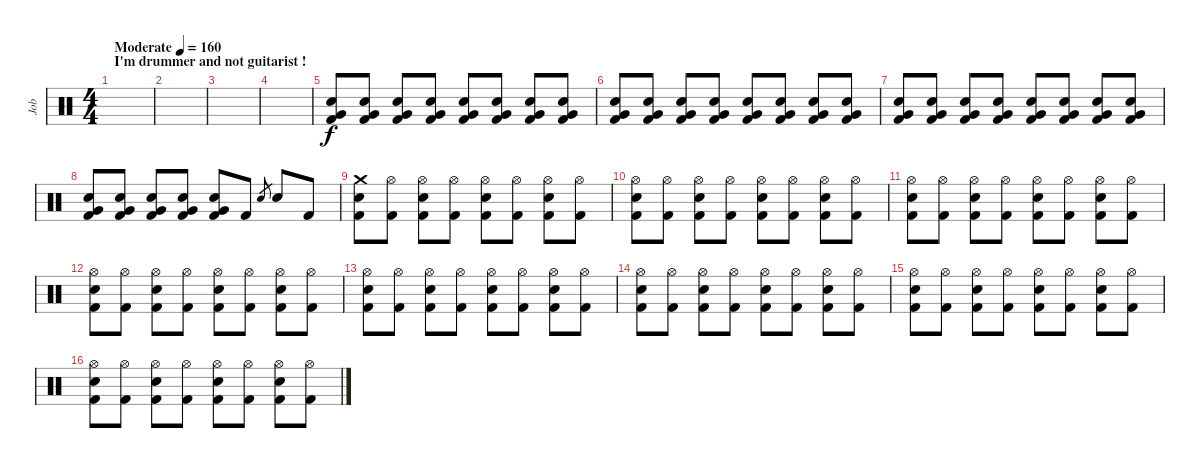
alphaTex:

\track ("Job" "Job") {instrument percussion}
\staff {score}
\articulation defaults
\ts (4 4)
\section ("" "I'm drummer and not guitarist !")
\tempo (160 "Moderate")
\clef neutral
\ks c
|
|
|
|
("Electric Snare (hit)" "Very Low Tom (hit)" "Kick (hit) 2").8{volume 12} ("Electric Snare (hit)" "Very Low Tom (hit)" "Kick (hit) 2").8 ("Electric Snare (hit)" "Very Low Tom (hit)" "Kick (hit) 2").8 ("Electric Snare (hit)" "Very Low Tom (hit)" "Kick (hit) 2").8 ("Electric Snare (hit)" "Very Low Tom (hit)" "Kick (hit) 2").8 ("Electric Snare (hit)" "Very Low Tom (hit)" "Kick (hit) 2").8 ("Electric Snare (hit)" "Very Low Tom (hit)" "Kick (hit) 2").8 ("Electric Snare (hit)" "Very Low Tom (hit)" "Kick (hit) 2").8 |
("Electric Snare (hit)" "Very Low Tom (hit)" "Kick (hit) 2").8 ("Electric Snare (hit)" "Very Low Tom (hit)" "Kick (hit) 2").8 ("Electric Snare (hit)" "Very Low Tom (hit)" "Kick (hit) 2").8 ("Electric Snare (hit)" "Very Low Tom (hit)" "Kick (hit) 2").8 ("Electric Snare (hit)" "Very Low Tom (hit)" "Kick (hit) 2").8 ("Electric Snare (hit)" "Very Low Tom (hit)" "Kick (hit) 2").8 ("Electric Snare (hit)" "Very Low Tom (hit)" "Kick (hit) 2").8 ("Electric Snare (hit)" "Very Low Tom (hit)" "Kick (hit) 2").8 |
("Electric Snare (hit)" "Very Low Tom (hit)" "Kick (hit) 2").8 ("Electric Snare (hit)" "Very Low Tom (hit)" "Kick (hit) 2").8 ("Electric Snare (hit)" "Very Low Tom (hit)" "Kick (hit) 2").8 ("Electric Snare (hit)" "Very Low Tom (hit)" "Kick (hit) 2").8 ("Electric Snare (hit)" "Very Low Tom (hit)" "Kick (hit) 2").8 ("Electric Snare (hit)" "Very Low Tom (hit)" "Kick (hit) 2").8 ("Electric Snare (hit)" "Very Low Tom (hit)" "Kick (hit) 2").8 ("Electric Snare (hit)" "Very Low Tom (hit)" "Kick (hit) 2").8 |
("Electric Snare (hit)" "Very Low Tom (hit)" "Kick (hit) 2").8 ("Electric Snare (hit)" "Very Low Tom (hit)" "Kick (hit) 2").8 ("Electric Snare (hit)" "Very Low Tom (hit)" "Kick (hit) 2").8 ("Electric Snare (hit)" "Very Low Tom (hit)" "Kick (hit) 2").8 ("Electric Snare (hit)" "Very Low Tom (hit)" "Kick (hit) 2").8 "Kick (hit) 2".8 "Electric Snare (hit)".8{gr} "Electric Snare (hit)".8 "Kick (hit) 2".8 |
("Crash medium (hit)" "Electric Snare (hit)" "Kick (hit) 2").8 ("Hi-Hat (open)" "Kick (hit) 2").8 ("Hi-Hat (open)" "Electric Snare (hit)" "Kick (hit) 2").8 ("Hi-Hat (open)" "Kick (hit) 2").8 ("Hi-Hat (open)" "Electric Snare (hit)" "Kick (hit) 2").8 ("Hi-Hat (open)" "Kick (hit) 2").8 ("Hi-Hat (open)" "Electric Snare (hit)" "Kick (hit) 2").8 ("Hi-Hat (open)" "Kick (hit) 2").8 |
("Hi-Hat (open)" "Electric Snare (hit)" "Kick (hit) 2").8 ("Hi-Hat (open)" "Kick (hit) 2").8 ("Hi-Hat (open)" "Electric Snare (hit)" "Kick (hit) 2").8 ("Hi-Hat (open)" "Kick (hit) 2").8 ("Hi-Hat (open)" "Electric Snare (hit)" "Kick (hit) 2").8 ("Hi-Hat (open)" "Kick (hit) 2").8 ("Hi-Hat (open)" "Electric Snare (hit)" "Kick (hit) 2").8 ("Hi-Hat (open)" "Kick (hit) 2").8 |
("Hi-Hat (open)" "Electric Snare (hit)" "Kick (hit) 2").8 ("Hi-Hat (open)" "Kick (hit) 2").8 ("Hi-Hat (open)" "Electric Snare (hit)" "Kick (hit) 2").8 ("Hi-Hat (open)" "Kick (hit) 2").8 ("Hi-Hat (open)" "Electric Snare (hit)" "Kick (hit) 2").8 ("Hi-Hat (open)" "Kick (hit) 2").8 ("Hi-Hat (open)" "Electric Snare (hit)" "Kick (hit) 2").8 ("Hi-Hat (open)" "Kick (hit) 2").8 |
("Hi-Hat (open)" "Electric Snare (hit)" "Kick (hit) 2").8 ("Hi-Hat (open)" "Kick (hit) 2").8 ("Hi-Hat (open)" "Electric Snare (hit)" "Kick (hit) 2").8 ("Hi-Hat (open)" "Kick (hit) 2").8 ("Hi-Hat (open)" "Electric Snare (hit)" "Kick (hit) 2").8 ("Hi-Hat (open)" "Kick (hit) 2").8 ("Hi-Hat (open)" "Electric Snare (hit)" "Kick (hit) 2").8 ("Hi-Hat (open)" "Kick (hit) 2").8 |
("Hi-Hat (open)" "Electric Snare (hit)" "Kick (hit) 2").8 ("Hi-Hat (open)" "Kick (hit) 2").8 ("Hi-Hat (open)" "Electric Snare (hit)" "Kick (hit) 2").8 ("Hi-Hat (open)" "Kick (hit) 2").8 ("Hi-Hat (open)" "Electric Snare (hit)" "Kick (hit) 2").8 ("Hi-Hat (open)" "Kick (hit) 2").8 ("Hi-Hat (open)" "Electric Snare (hit)" "Kick (hit) 2").8 ("Hi-Hat (open)" "Kick (hit) 2").8 |
("Hi-Hat (open)" "Electric Snare (hit)" "Kick (hit) 2").8 ("Hi-Hat (open)" "Kick (hit) 2").8 ("Hi-Hat (open)" "Electric Snare (hit)" "Kick (hit) 2").8 ("Hi-Hat (open)" "Kick (hit) 2").8 ("Hi-Hat (open)" "Electric Snare (hit)" "Kick (hit) 2").8 ("Hi-Hat (open)" "Kick (hit) 2").8 ("Hi-Hat (open)" "Electric Snare (hit)" "Kick (hit) 2").8 ("Hi-Hat (open)" "Kick (hit) 2").8 |
("Hi-Hat (open)" "Electric Snare (hit)" "Kick (hit) 2").8 ("Hi-Hat (open)" "Kick (hit) 2").8 ("Hi-Hat (open)" "Electric Snare (hit)" "Kick (hit) 2").8 ("Hi-Hat (open)" "Kick (hit) 2").8 ("Hi-Hat (open)" "Electric Snare (hit)" "Kick (hit) 2").8 ("Hi-Hat (open)" "Kick (hit) 2").8 ("Hi-Hat (open)" "Electric Snare (hit)" "Kick (hit) 2").8 ("Hi-Hat (open)" "Kick (hit) 2").8 |
("Hi-Hat (open)" "Electric Snare (hit)" "Kick (hit) 2").8 ("Hi-Hat (open)" "Kick (hit) 2").8 ("Hi-Hat (open)" "Electric Snare (hit)" "Kick (hit) 2").8 ("Hi-Hat (open)" "Kick (hit) 2").8 ("Hi-Hat (open)" "Electric Snare (hit)" "Kick (hit) 2").8 ("Hi-Hat (open)" "Kick (hit) 2").8 ("Hi-Hat (open)" "Electric Snare (hit)" "Kick (hit) 2").8 ("Hi-Hat (open)" "Kick (hit) 2").8
